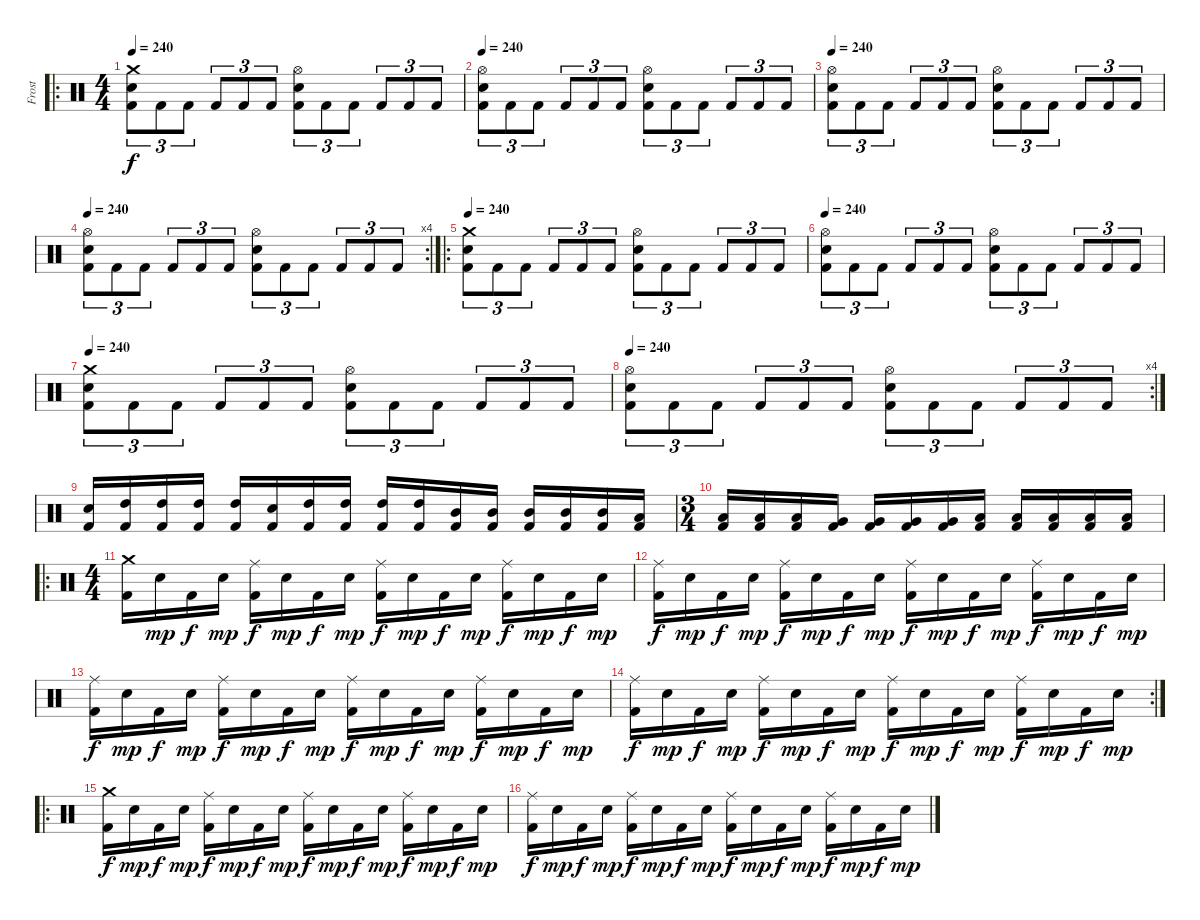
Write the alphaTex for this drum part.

\track ("Frost" "Frost") {instrument percussion}
\staff {score}
\articulation defaults
\ro
\ts (4 4)
\tempo 240
\clef neutral
\ks c
("Crash medium (hit)" "Electric Snare (hit)" "Kick (hit) 2").8{tu (3 2) dy f} "Kick (hit) 2".8{tu (3 2)} "Kick (hit) 2".8{tu (3 2)} "Kick (hit) 2".8{tu (3 2)} "Kick (hit) 2".8{tu (3 2)} "Kick (hit) 2".8{tu (3 2)} ("Hi-Hat (open)" "Electric Snare (hit)" "Kick (hit) 2").8{tu (3 2)} "Kick (hit) 2".8{tu (3 2)} "Kick (hit) 2".8{tu (3 2)} "Kick (hit) 2".8{tu (3 2)} "Kick (hit) 2".8{tu (3 2)} "Kick (hit) 2".8{tu (3 2)} |
\tempo 240
("Hi-Hat (open)" "Electric Snare (hit)" "Kick (hit) 2").8{tu (3 2)} "Kick (hit) 2".8{tu (3 2)} "Kick (hit) 2".8{tu (3 2)} "Kick (hit) 2".8{tu (3 2)} "Kick (hit) 2".8{tu (3 2)} "Kick (hit) 2".8{tu (3 2)} ("Hi-Hat (open)" "Electric Snare (hit)" "Kick (hit) 2").8{tu (3 2)} "Kick (hit) 2".8{tu (3 2)} "Kick (hit) 2".8{tu (3 2)} "Kick (hit) 2".8{tu (3 2)} "Kick (hit) 2".8{tu (3 2)} "Kick (hit) 2".8{tu (3 2)} |
\tempo 240
("Hi-Hat (open)" "Electric Snare (hit)" "Kick (hit) 2").8{tu (3 2)} "Kick (hit) 2".8{tu (3 2)} "Kick (hit) 2".8{tu (3 2)} "Kick (hit) 2".8{tu (3 2)} "Kick (hit) 2".8{tu (3 2)} "Kick (hit) 2".8{tu (3 2)} ("Hi-Hat (open)" "Electric Snare (hit)" "Kick (hit) 2").8{tu (3 2)} "Kick (hit) 2".8{tu (3 2)} "Kick (hit) 2".8{tu (3 2)} "Kick (hit) 2".8{tu (3 2)} "Kick (hit) 2".8{tu (3 2)} "Kick (hit) 2".8{tu (3 2)} |
\rc 4
\tempo 240
("Hi-Hat (open)" "Electric Snare (hit)" "Kick (hit) 2").8{tu (3 2)} "Kick (hit) 2".8{tu (3 2)} "Kick (hit) 2".8{tu (3 2)} "Kick (hit) 2".8{tu (3 2)} "Kick (hit) 2".8{tu (3 2)} "Kick (hit) 2".8{tu (3 2)} ("Hi-Hat (open)" "Electric Snare (hit)" "Kick (hit) 2").8{tu (3 2)} "Kick (hit) 2".8{tu (3 2)} "Kick (hit) 2".8{tu (3 2)} "Kick (hit) 2".8{tu (3 2)} "Kick (hit) 2".8{tu (3 2)} "Kick (hit) 2".8{tu (3 2)} |
\ro
\tempo 240
("Crash medium (hit)" "Electric Snare (hit)" "Kick (hit) 2").8{tu (3 2)} "Kick (hit) 2".8{tu (3 2)} "Kick (hit) 2".8{tu (3 2)} "Kick (hit) 2".8{tu (3 2)} "Kick (hit) 2".8{tu (3 2)} "Kick (hit) 2".8{tu (3 2)} ("Hi-Hat (open)" "Electric Snare (hit)" "Kick (hit) 2").8{tu (3 2)} "Kick (hit) 2".8{tu (3 2)} "Kick (hit) 2".8{tu (3 2)} "Kick (hit) 2".8{tu (3 2)} "Kick (hit) 2".8{tu (3 2)} "Kick (hit) 2".8{tu (3 2)} |
\tempo 240
("Hi-Hat (open)" "Electric Snare (hit)" "Kick (hit) 2").8{tu (3 2)} "Kick (hit) 2".8{tu (3 2)} "Kick (hit) 2".8{tu (3 2)} "Kick (hit) 2".8{tu (3 2)} "Kick (hit) 2".8{tu (3 2)} "Kick (hit) 2".8{tu (3 2)} ("Hi-Hat (open)" "Electric Snare (hit)" "Kick (hit) 2").8{tu (3 2)} "Kick (hit) 2".8{tu (3 2)} "Kick (hit) 2".8{tu (3 2)} "Kick (hit) 2".8{tu (3 2)} "Kick (hit) 2".8{tu (3 2)} "Kick (hit) 2".8{tu (3 2)} |
\tempo 240
("Crash medium (hit)" "Electric Snare (hit)" "Kick (hit) 2").8{tu (3 2)} "Kick (hit) 2".8{tu (3 2)} "Kick (hit) 2".8{tu (3 2)} "Kick (hit) 2".8{tu (3 2)} "Kick (hit) 2".8{tu (3 2)} "Kick (hit) 2".8{tu (3 2)} ("Hi-Hat (open)" "Electric Snare (hit)" "Kick (hit) 2").8{tu (3 2)} "Kick (hit) 2".8{tu (3 2)} "Kick (hit) 2".8{tu (3 2)} "Kick (hit) 2".8{tu (3 2)} "Kick (hit) 2".8{tu (3 2)} "Kick (hit) 2".8{tu (3 2)} |
\rc 4
\tempo 240
("Hi-Hat (open)" "Electric Snare (hit)" "Kick (hit) 2").8{tu (3 2)} "Kick (hit) 2".8{tu (3 2)} "Kick (hit) 2".8{tu (3 2)} "Kick (hit) 2".8{tu (3 2)} "Kick (hit) 2".8{tu (3 2)} "Kick (hit) 2".8{tu (3 2)} ("Hi-Hat (open)" "Electric Snare (hit)" "Kick (hit) 2").8{tu (3 2)} "Kick (hit) 2".8{tu (3 2)} "Kick (hit) 2".8{tu (3 2)} "Kick (hit) 2".8{tu (3 2)} "Kick (hit) 2".8{tu (3 2)} "Kick (hit) 2".8{tu (3 2)} |
("Electric Snare (hit)" "Kick (hit) 2").16 ("High Tom (hit)" "Kick (hit) 2").16 ("High Tom (hit)" "Kick (hit) 2").16 ("High Tom (hit)" "Kick (hit) 2").16 ("High Tom (hit)" "Kick (hit) 2").16 ("Electric Snare (hit)" "Kick (hit) 2").16 ("High Tom (hit)" "Kick (hit) 2").16 ("High Tom (hit)" "Kick (hit) 2").16 ("High Tom (hit)" "Kick (hit) 2").16 ("High Tom (hit)" "Kick (hit) 2").16 ("Mid Tom (hit)" "Kick (hit) 2").16 ("Mid Tom (hit)" "Kick (hit) 2").16 ("Mid Tom (hit)" "Kick (hit) 2").16 ("Mid Tom (hit)" "Kick (hit) 2").16 ("Mid Tom (hit)" "Kick (hit) 2").16 ("Low Tom (hit)" "Kick (hit) 2").16 |
\ts (3 4)
("Low Tom (hit)" "Kick (hit) 2").16 ("Low Tom (hit)" "Kick (hit) 2").16 ("Low Tom (hit)" "Kick (hit) 2").16 ("Very Low Tom (hit)" "Kick (hit) 2").16 ("Very Low Tom (hit)" "Kick (hit) 2").16 ("Very Low Tom (hit)" "Kick (hit) 2").16 ("Very Low Tom (hit)" "Kick (hit) 2").16 ("Low Floor Tom (hit)" "Kick (hit) 2").16 ("Low Floor Tom (hit)" "Kick (hit) 2").16 ("Low Floor Tom (hit)" "Kick (hit) 2").16 ("Low Floor Tom (hit)" "Kick (hit) 2").16 ("Low Floor Tom (hit)" "Kick (hit) 2").16 |
\ro
\ts (4 4)
("Crash medium (hit)" "Kick (hit) 2").16 "Electric Snare (hit)".16{dy mp} "Kick (hit) 2".16{dy f} "Electric Snare (hit)".16{dy mp} ("Ride (middle)" "Kick (hit) 2").16{dy f} "Electric Snare (hit)".16{dy mp} "Kick (hit) 2".16{dy f} "Electric Snare (hit)".16{dy mp} ("Ride (middle)" "Kick (hit) 2").16{dy f} "Electric Snare (hit)".16{dy mp} "Kick (hit) 2".16{dy f} "Electric Snare (hit)".16{dy mp} ("Ride (middle)" "Kick (hit) 2").16{dy f} "Electric Snare (hit)".16{dy mp} "Kick (hit) 2".16{dy f} "Electric Snare (hit)".16{dy mp} |
("Ride (middle)" "Kick (hit) 2").16{dy f} "Electric Snare (hit)".16{dy mp} "Kick (hit) 2".16{dy f} "Electric Snare (hit)".16{dy mp} ("Ride (middle)" "Kick (hit) 2").16{dy f} "Electric Snare (hit)".16{dy mp} "Kick (hit) 2".16{dy f} "Electric Snare (hit)".16{dy mp} ("Ride (middle)" "Kick (hit) 2").16{dy f} "Electric Snare (hit)".16{dy mp} "Kick (hit) 2".16{dy f} "Electric Snare (hit)".16{dy mp} ("Ride (middle)" "Kick (hit) 2").16{dy f} "Electric Snare (hit)".16{dy mp} "Kick (hit) 2".16{dy f} "Electric Snare (hit)".16{dy mp} |
("Ride (middle)" "Kick (hit) 2").16{dy f} "Electric Snare (hit)".16{dy mp} "Kick (hit) 2".16{dy f} "Electric Snare (hit)".16{dy mp} ("Ride (middle)" "Kick (hit) 2").16{dy f} "Electric Snare (hit)".16{dy mp} "Kick (hit) 2".16{dy f} "Electric Snare (hit)".16{dy mp} ("Ride (middle)" "Kick (hit) 2").16{dy f} "Electric Snare (hit)".16{dy mp} "Kick (hit) 2".16{dy f} "Electric Snare (hit)".16{dy mp} ("Ride (middle)" "Kick (hit) 2").16{dy f} "Electric Snare (hit)".16{dy mp} "Kick (hit) 2".16{dy f} "Electric Snare (hit)".16{dy mp} |
\rc 2
("Ride (middle)" "Kick (hit) 2").16{dy f} "Electric Snare (hit)".16{dy mp} "Kick (hit) 2".16{dy f} "Electric Snare (hit)".16{dy mp} ("Ride (middle)" "Kick (hit) 2").16{dy f} "Electric Snare (hit)".16{dy mp} "Kick (hit) 2".16{dy f} "Electric Snare (hit)".16{dy mp} ("Ride (middle)" "Kick (hit) 2").16{dy f} "Electric Snare (hit)".16{dy mp} "Kick (hit) 2".16{dy f} "Electric Snare (hit)".16{dy mp} ("Ride (middle)" "Kick (hit) 2").16{dy f} "Electric Snare (hit)".16{dy mp} "Kick (hit) 2".16{dy f} "Electric Snare (hit)".16{dy mp} |
\ro
("Crash medium (hit)" "Kick (hit) 2").16{dy f} "Electric Snare (hit)".16{dy mp} "Kick (hit) 2".16{dy f} "Electric Snare (hit)".16{dy mp} ("Ride (middle)" "Kick (hit) 2").16{dy f} "Electric Snare (hit)".16{dy mp} "Kick (hit) 2".16{dy f} "Electric Snare (hit)".16{dy mp} ("Ride (middle)" "Kick (hit) 2").16{dy f} "Electric Snare (hit)".16{dy mp} "Kick (hit) 2".16{dy f} "Electric Snare (hit)".16{dy mp} ("Ride (middle)" "Kick (hit) 2").16{dy f} "Electric Snare (hit)".16{dy mp} "Kick (hit) 2".16{dy f} "Electric Snare (hit)".16{dy mp} |
("Ride (middle)" "Kick (hit) 2").16{dy f} "Electric Snare (hit)".16{dy mp} "Kick (hit) 2".16{dy f} "Electric Snare (hit)".16{dy mp} ("Ride (middle)" "Kick (hit) 2").16{dy f} "Electric Snare (hit)".16{dy mp} "Kick (hit) 2".16{dy f} "Electric Snare (hit)".16{dy mp} ("Ride (middle)" "Kick (hit) 2").16{dy f} "Electric Snare (hit)".16{dy mp} "Kick (hit) 2".16{dy f} "Electric Snare (hit)".16{dy mp} ("Ride (middle)" "Kick (hit) 2").16{dy f} "Electric Snare (hit)".16{dy mp} "Kick (hit) 2".16{dy f} "Electric Snare (hit)".16{dy mp}
